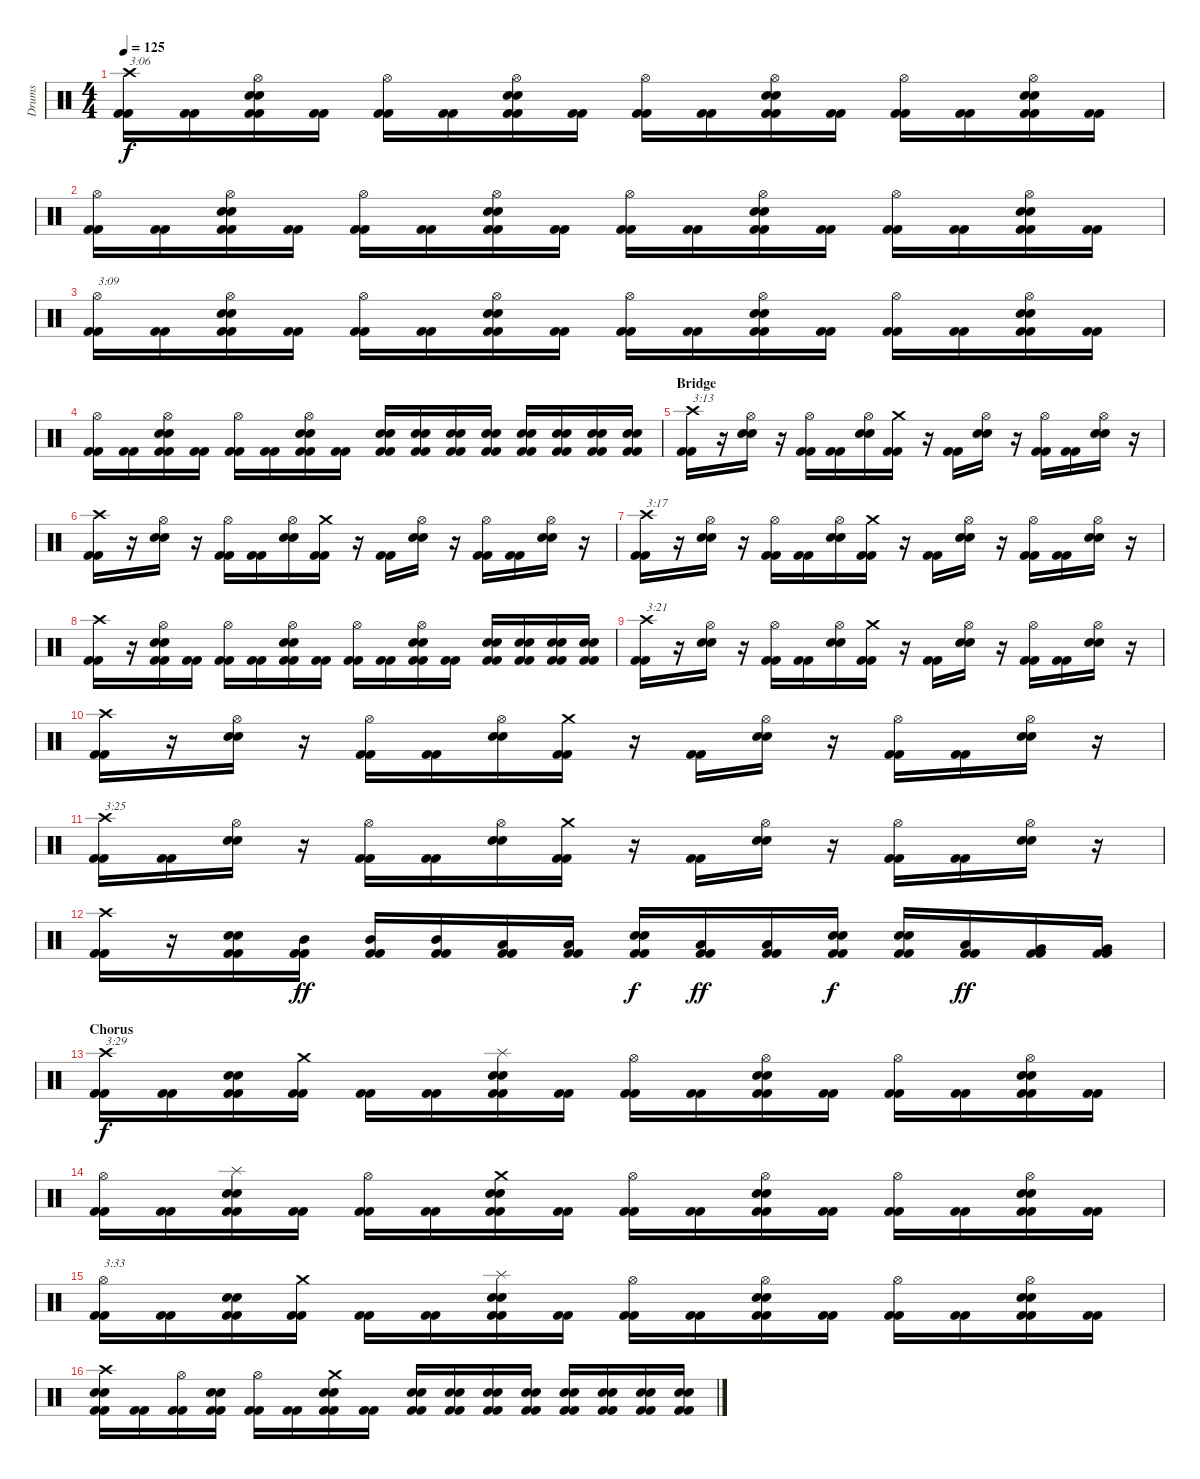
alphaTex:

\track ("Drums" "Drums") {instrument percussion}
\staff {score}
\articulation defaults
\ts (4 4)
\tempo 125
\clef neutral
\ks c
("Crash high (hit)" "Kick (hit) 2" "Kick (hit) 2").16{txt "3:06" dy f} ("Kick (hit) 2" "Kick (hit) 2").16 ("Hi-Hat (open)" "Snare (hit) 2" "Snare (hit) 2" "Kick (hit) 2" "Kick (hit) 2").16 ("Kick (hit) 2" "Kick (hit) 2").16 ("Hi-Hat (open)" "Kick (hit) 2" "Kick (hit) 2").16 ("Kick (hit) 2" "Kick (hit) 2").16 ("Hi-Hat (open)" "Snare (hit) 2" "Snare (hit) 2" "Kick (hit) 2" "Kick (hit) 2").16 ("Kick (hit) 2" "Kick (hit) 2").16 ("Hi-Hat (open)" "Kick (hit) 2" "Kick (hit) 2").16 ("Kick (hit) 2" "Kick (hit) 2").16 ("Hi-Hat (open)" "Snare (hit) 2" "Snare (hit) 2" "Kick (hit) 2" "Kick (hit) 2").16 ("Kick (hit) 2" "Kick (hit) 2").16 ("Hi-Hat (open)" "Kick (hit) 2" "Kick (hit) 2").16 ("Kick (hit) 2" "Kick (hit) 2").16 ("Hi-Hat (open)" "Snare (hit) 2" "Snare (hit) 2" "Kick (hit) 2" "Kick (hit) 2").16 ("Kick (hit) 2" "Kick (hit) 2").16 |
("Hi-Hat (open)" "Kick (hit) 2" "Kick (hit) 2").16 ("Kick (hit) 2" "Kick (hit) 2").16 ("Hi-Hat (open)" "Snare (hit) 2" "Snare (hit) 2" "Kick (hit) 2" "Kick (hit) 2").16 ("Kick (hit) 2" "Kick (hit) 2").16 ("Hi-Hat (open)" "Kick (hit) 2" "Kick (hit) 2").16 ("Kick (hit) 2" "Kick (hit) 2").16 ("Hi-Hat (open)" "Snare (hit) 2" "Snare (hit) 2" "Kick (hit) 2" "Kick (hit) 2").16 ("Kick (hit) 2" "Kick (hit) 2").16 ("Hi-Hat (open)" "Kick (hit) 2" "Kick (hit) 2").16 ("Kick (hit) 2" "Kick (hit) 2").16 ("Hi-Hat (open)" "Snare (hit) 2" "Snare (hit) 2" "Kick (hit) 2" "Kick (hit) 2").16 ("Kick (hit) 2" "Kick (hit) 2").16 ("Hi-Hat (open)" "Kick (hit) 2" "Kick (hit) 2").16 ("Kick (hit) 2" "Kick (hit) 2").16 ("Hi-Hat (open)" "Snare (hit) 2" "Snare (hit) 2" "Kick (hit) 2" "Kick (hit) 2").16 ("Kick (hit) 2" "Kick (hit) 2").16 |
("Hi-Hat (open)" "Kick (hit) 2" "Kick (hit) 2").16{txt "3:09"} ("Kick (hit) 2" "Kick (hit) 2").16 ("Hi-Hat (open)" "Snare (hit) 2" "Snare (hit) 2" "Kick (hit) 2" "Kick (hit) 2").16 ("Kick (hit) 2" "Kick (hit) 2").16 ("Hi-Hat (open)" "Kick (hit) 2" "Kick (hit) 2").16 ("Kick (hit) 2" "Kick (hit) 2").16 ("Hi-Hat (open)" "Snare (hit) 2" "Snare (hit) 2" "Kick (hit) 2" "Kick (hit) 2").16 ("Kick (hit) 2" "Kick (hit) 2").16 ("Hi-Hat (open)" "Kick (hit) 2" "Kick (hit) 2").16 ("Kick (hit) 2" "Kick (hit) 2").16 ("Hi-Hat (open)" "Snare (hit) 2" "Snare (hit) 2" "Kick (hit) 2" "Kick (hit) 2").16 ("Kick (hit) 2" "Kick (hit) 2").16 ("Hi-Hat (open)" "Kick (hit) 2" "Kick (hit) 2").16 ("Kick (hit) 2" "Kick (hit) 2").16 ("Hi-Hat (open)" "Snare (hit) 2" "Snare (hit) 2" "Kick (hit) 2" "Kick (hit) 2").16 ("Kick (hit) 2" "Kick (hit) 2").16 |
("Hi-Hat (open)" "Kick (hit) 2" "Kick (hit) 2").16 ("Kick (hit) 2" "Kick (hit) 2").16 ("Hi-Hat (open)" "Snare (hit) 2" "Snare (hit) 2" "Kick (hit) 2" "Kick (hit) 2").16 ("Kick (hit) 2" "Kick (hit) 2").16 ("Hi-Hat (open)" "Kick (hit) 2" "Kick (hit) 2").16 ("Kick (hit) 2" "Kick (hit) 2").16 ("Hi-Hat (open)" "Snare (hit) 2" "Snare (hit) 2" "Kick (hit) 2" "Kick (hit) 2").16 ("Kick (hit) 2" "Kick (hit) 2").16 ("Snare (hit) 2" "Snare (hit) 2" "Kick (hit) 2" "Kick (hit) 2").16 ("Snare (hit) 2" "Snare (hit) 2" "Kick (hit) 2" "Kick (hit) 2").16 ("Snare (hit) 2" "Snare (hit) 2" "Kick (hit) 2" "Kick (hit) 2").16 ("Snare (hit) 2" "Snare (hit) 2" "Kick (hit) 2" "Kick (hit) 2").16 ("Snare (hit) 2" "Snare (hit) 2" "Kick (hit) 2" "Kick (hit) 2").16 ("Snare (hit) 2" "Snare (hit) 2" "Kick (hit) 2" "Kick (hit) 2").16 ("Snare (hit) 2" "Snare (hit) 2" "Kick (hit) 2" "Kick (hit) 2").16 ("Snare (hit) 2" "Snare (hit) 2" "Kick (hit) 2" "Kick (hit) 2").16 |
\section ("" "Bridge")
("Crash high (hit)" "Kick (hit) 2" "Kick (hit) 2").16{txt "3:13"} r.16 ("Hi-Hat (open)" "Snare (hit) 2" "Snare (hit) 2").16 r.16 ("Hi-Hat (open)" "Kick (hit) 2" "Kick (hit) 2").16 ("Kick (hit) 2" "Kick (hit) 2").16 ("Hi-Hat (open)" "Snare (hit) 2" "Snare (hit) 2").16 ("Crash medium (hit)" "Kick (hit) 2" "Kick (hit) 2").16 r.16 ("Kick (hit) 2" "Kick (hit) 2").16 ("Hi-Hat (open)" "Snare (hit) 2" "Snare (hit) 2").16 r.16 ("Hi-Hat (open)" "Kick (hit) 2" "Kick (hit) 2").16 ("Kick (hit) 2" "Kick (hit) 2").16 ("Hi-Hat (open)" "Snare (hit) 2" "Snare (hit) 2").16 r.16 |
("Crash high (hit)" "Kick (hit) 2" "Kick (hit) 2").16 r.16 ("Hi-Hat (open)" "Snare (hit) 2" "Snare (hit) 2").16 r.16 ("Hi-Hat (open)" "Kick (hit) 2" "Kick (hit) 2").16 ("Kick (hit) 2" "Kick (hit) 2").16 ("Hi-Hat (open)" "Snare (hit) 2" "Snare (hit) 2").16 ("Crash medium (hit)" "Kick (hit) 2" "Kick (hit) 2").16 r.16 ("Kick (hit) 2" "Kick (hit) 2").16 ("Hi-Hat (open)" "Snare (hit) 2" "Snare (hit) 2").16 r.16 ("Hi-Hat (open)" "Kick (hit) 2" "Kick (hit) 2").16 ("Kick (hit) 2" "Kick (hit) 2").16 ("Hi-Hat (open)" "Snare (hit) 2" "Snare (hit) 2").16 r.16 |
("Crash high (hit)" "Kick (hit) 2" "Kick (hit) 2").16{txt "3:17"} r.16 ("Hi-Hat (open)" "Snare (hit) 2" "Snare (hit) 2").16 r.16 ("Hi-Hat (open)" "Kick (hit) 2" "Kick (hit) 2").16 ("Kick (hit) 2" "Kick (hit) 2").16 ("Hi-Hat (open)" "Snare (hit) 2" "Snare (hit) 2").16 ("Crash medium (hit)" "Kick (hit) 2" "Kick (hit) 2").16 r.16 ("Kick (hit) 2" "Kick (hit) 2").16 ("Hi-Hat (open)" "Snare (hit) 2" "Snare (hit) 2").16 r.16 ("Hi-Hat (open)" "Kick (hit) 2" "Kick (hit) 2").16 ("Kick (hit) 2" "Kick (hit) 2").16 ("Hi-Hat (open)" "Snare (hit) 2" "Snare (hit) 2").16 r.16 |
("Crash high (hit)" "Kick (hit) 2" "Kick (hit) 2").16 r.16 ("Hi-Hat (open)" "Snare (hit) 2" "Snare (hit) 2" "Kick (hit) 2" "Kick (hit) 2").16 ("Kick (hit) 2" "Kick (hit) 2").16 ("Hi-Hat (open)" "Kick (hit) 2" "Kick (hit) 2").16 ("Kick (hit) 2" "Kick (hit) 2").16 ("Hi-Hat (open)" "Snare (hit) 2" "Snare (hit) 2" "Kick (hit) 2" "Kick (hit) 2").16 ("Kick (hit) 2" "Kick (hit) 2").16 ("Hi-Hat (open)" "Kick (hit) 2" "Kick (hit) 2").16 ("Kick (hit) 2" "Kick (hit) 2").16 ("Hi-Hat (open)" "Snare (hit) 2" "Snare (hit) 2" "Kick (hit) 2" "Kick (hit) 2").16 ("Kick (hit) 2" "Kick (hit) 2").16 ("Snare (hit) 2" "Snare (hit) 2" "Kick (hit) 2" "Kick (hit) 2").16 ("Snare (hit) 2" "Snare (hit) 2" "Kick (hit) 2" "Kick (hit) 2").16 ("Snare (hit) 2" "Snare (hit) 2" "Kick (hit) 2" "Kick (hit) 2").16 ("Snare (hit) 2" "Snare (hit) 2" "Kick (hit) 2" "Kick (hit) 2").16 |
("Crash high (hit)" "Kick (hit) 2" "Kick (hit) 2").16{txt "3:21"} r.16 ("Hi-Hat (open)" "Snare (hit) 2" "Snare (hit) 2").16 r.16 ("Hi-Hat (open)" "Kick (hit) 2" "Kick (hit) 2").16 ("Kick (hit) 2" "Kick (hit) 2").16 ("Hi-Hat (open)" "Snare (hit) 2" "Snare (hit) 2").16 ("Crash medium (hit)" "Kick (hit) 2" "Kick (hit) 2").16 r.16 ("Kick (hit) 2" "Kick (hit) 2").16 ("Hi-Hat (open)" "Snare (hit) 2" "Snare (hit) 2").16 r.16 ("Hi-Hat (open)" "Kick (hit) 2" "Kick (hit) 2").16 ("Kick (hit) 2" "Kick (hit) 2").16 ("Hi-Hat (open)" "Snare (hit) 2" "Snare (hit) 2").16 r.16 |
("Crash high (hit)" "Kick (hit) 2" "Kick (hit) 2").16 r.16 ("Hi-Hat (open)" "Snare (hit) 2" "Snare (hit) 2").16 r.16 ("Hi-Hat (open)" "Kick (hit) 2" "Kick (hit) 2").16 ("Kick (hit) 2" "Kick (hit) 2").16 ("Hi-Hat (open)" "Snare (hit) 2" "Snare (hit) 2").16 ("Crash medium (hit)" "Kick (hit) 2" "Kick (hit) 2").16 r.16 ("Kick (hit) 2" "Kick (hit) 2").16 ("Hi-Hat (open)" "Snare (hit) 2" "Snare (hit) 2").16 r.16 ("Hi-Hat (open)" "Kick (hit) 2" "Kick (hit) 2").16 ("Kick (hit) 2" "Kick (hit) 2").16 ("Hi-Hat (open)" "Snare (hit) 2" "Snare (hit) 2").16 r.16 |
("Crash high (hit)" "Kick (hit) 2" "Kick (hit) 2").16{txt "3:25"} ("Kick (hit) 2" "Kick (hit) 2").16 ("Hi-Hat (open)" "Snare (hit) 2" "Snare (hit) 2").16 r.16 ("Hi-Hat (open)" "Kick (hit) 2" "Kick (hit) 2").16 ("Kick (hit) 2" "Kick (hit) 2").16 ("Hi-Hat (open)" "Snare (hit) 2" "Snare (hit) 2").16 ("Crash medium (hit)" "Kick (hit) 2" "Kick (hit) 2").16 r.16 ("Kick (hit) 2" "Kick (hit) 2").16 ("Hi-Hat (open)" "Snare (hit) 2" "Snare (hit) 2").16 r.16 ("Hi-Hat (open)" "Kick (hit) 2" "Kick (hit) 2").16 ("Kick (hit) 2" "Kick (hit) 2").16 ("Hi-Hat (open)" "Snare (hit) 2" "Snare (hit) 2").16 r.16 |
("Crash high (hit)" "Kick (hit) 2" "Kick (hit) 2").16 r.16 ("Snare (hit) 2" "Snare (hit) 2" "Kick (hit) 2" "Kick (hit) 2").16 ("Mid Tom (hit)" "Kick (hit) 2" "Kick (hit) 2").16{dy ff} ("Mid Tom (hit)" "Kick (hit) 2" "Kick (hit) 2").16 ("Mid Tom (hit)" "Kick (hit) 2" "Kick (hit) 2").16 ("Low Tom (hit)" "Kick (hit) 2" "Kick (hit) 2").16 ("Low Tom (hit)" "Kick (hit) 2" "Kick (hit) 2").16 ("Snare (hit) 2" "Snare (hit) 2" "Kick (hit) 2" "Kick (hit) 2").16{dy f} ("Low Tom (hit)" "Kick (hit) 2" "Kick (hit) 2").16{dy ff} ("Low Tom (hit)" "Kick (hit) 2" "Kick (hit) 2").16 ("Snare (hit) 2" "Snare (hit) 2" "Kick (hit) 2" "Kick (hit) 2").16{dy f} ("Snare (hit) 2" "Snare (hit) 2" "Kick (hit) 2" "Kick (hit) 2").16 ("Low Tom (hit)" "Kick (hit) 2" "Kick (hit) 2").16{dy ff} ("Very Low Tom (hit)" "Kick (hit) 2" "Kick (hit) 2").16 ("Very Low Tom (hit)" "Kick (hit) 2" "Kick (hit) 2").16 |
\section ("" "Chorus")
("Crash high (hit)" "Kick (hit) 2" "Kick (hit) 2").16{txt "3:29" dy f} ("Kick (hit) 2" "Kick (hit) 2").16 ("Snare (hit) 2" "Snare (hit) 2" "Kick (hit) 2" "Kick (hit) 2").16 ("Crash medium (hit)" "Kick (hit) 2" "Kick (hit) 2").16 ("Kick (hit) 2" "Kick (hit) 2").16 ("Kick (hit) 2" "Kick (hit) 2").16 ("Splash (hit)" "Snare (hit) 2" "Snare (hit) 2" "Kick (hit) 2" "Kick (hit) 2").16 ("Kick (hit) 2" "Kick (hit) 2").16 ("Hi-Hat (open)" "Kick (hit) 2" "Kick (hit) 2").16 ("Kick (hit) 2" "Kick (hit) 2").16 ("Hi-Hat (open)" "Snare (hit) 2" "Snare (hit) 2" "Kick (hit) 2" "Kick (hit) 2").16 ("Kick (hit) 2" "Kick (hit) 2").16 ("Hi-Hat (open)" "Kick (hit) 2" "Kick (hit) 2").16 ("Kick (hit) 2" "Kick (hit) 2").16 ("Hi-Hat (open)" "Snare (hit) 2" "Snare (hit) 2" "Kick (hit) 2" "Kick (hit) 2").16 ("Kick (hit) 2" "Kick (hit) 2").16 |
("Hi-Hat (open)" "Kick (hit) 2" "Kick (hit) 2").16 ("Kick (hit) 2" "Kick (hit) 2").16 ("Splash (hit)" "Snare (hit) 2" "Snare (hit) 2" "Kick (hit) 2" "Kick (hit) 2").16 ("Kick (hit) 2" "Kick (hit) 2").16 ("Hi-Hat (open)" "Kick (hit) 2" "Kick (hit) 2").16 ("Kick (hit) 2" "Kick (hit) 2").16 ("Crash medium (hit)" "Snare (hit) 2" "Snare (hit) 2" "Kick (hit) 2" "Kick (hit) 2").16 ("Kick (hit) 2" "Kick (hit) 2").16 ("Hi-Hat (open)" "Kick (hit) 2" "Kick (hit) 2").16 ("Kick (hit) 2" "Kick (hit) 2").16 ("Hi-Hat (open)" "Snare (hit) 2" "Snare (hit) 2" "Kick (hit) 2" "Kick (hit) 2").16 ("Kick (hit) 2" "Kick (hit) 2").16 ("Hi-Hat (open)" "Kick (hit) 2" "Kick (hit) 2").16 ("Kick (hit) 2" "Kick (hit) 2").16 ("Hi-Hat (open)" "Snare (hit) 2" "Snare (hit) 2" "Kick (hit) 2" "Kick (hit) 2").16 ("Kick (hit) 2" "Kick (hit) 2").16 |
("Hi-Hat (open)" "Kick (hit) 2" "Kick (hit) 2").16{txt "3:33"} ("Kick (hit) 2" "Kick (hit) 2").16 ("Snare (hit) 2" "Snare (hit) 2" "Kick (hit) 2" "Kick (hit) 2").16 ("Crash medium (hit)" "Kick (hit) 2" "Kick (hit) 2").16 ("Kick (hit) 2" "Kick (hit) 2").16 ("Kick (hit) 2" "Kick (hit) 2").16 ("Splash (hit)" "Snare (hit) 2" "Snare (hit) 2" "Kick (hit) 2" "Kick (hit) 2").16 ("Kick (hit) 2" "Kick (hit) 2").16 ("Hi-Hat (open)" "Kick (hit) 2" "Kick (hit) 2").16 ("Kick (hit) 2" "Kick (hit) 2").16 ("Hi-Hat (open)" "Snare (hit) 2" "Snare (hit) 2" "Kick (hit) 2" "Kick (hit) 2").16 ("Kick (hit) 2" "Kick (hit) 2").16 ("Hi-Hat (open)" "Kick (hit) 2" "Kick (hit) 2").16 ("Kick (hit) 2" "Kick (hit) 2").16 ("Hi-Hat (open)" "Snare (hit) 2" "Snare (hit) 2" "Kick (hit) 2" "Kick (hit) 2").16 ("Kick (hit) 2" "Kick (hit) 2").16 |
("Crash high (hit)" "Snare (hit) 2" "Snare (hit) 2" "Kick (hit) 2" "Kick (hit) 2").16 ("Kick (hit) 2" "Kick (hit) 2").16 ("Hi-Hat (open)" "Kick (hit) 2" "Kick (hit) 2").16 ("Snare (hit) 2" "Snare (hit) 2" "Kick (hit) 2" "Kick (hit) 2").16 ("Hi-Hat (open)" "Kick (hit) 2" "Kick (hit) 2").16 ("Kick (hit) 2" "Kick (hit) 2").16 ("Crash medium (hit)" "Snare (hit) 2" "Snare (hit) 2" "Kick (hit) 2" "Kick (hit) 2").16 ("Kick (hit) 2" "Kick (hit) 2").16 ("Snare (hit) 2" "Snare (hit) 2" "Kick (hit) 2" "Kick (hit) 2").16 ("Snare (hit) 2" "Snare (hit) 2" "Kick (hit) 2" "Kick (hit) 2").16 ("Snare (hit) 2" "Snare (hit) 2" "Kick (hit) 2" "Kick (hit) 2").16 ("Snare (hit) 2" "Snare (hit) 2" "Kick (hit) 2" "Kick (hit) 2").16 ("Snare (hit) 2" "Snare (hit) 2" "Kick (hit) 2" "Kick (hit) 2").16 ("Snare (hit) 2" "Snare (hit) 2" "Kick (hit) 2" "Kick (hit) 2").16 ("Snare (hit) 2" "Snare (hit) 2" "Kick (hit) 2" "Kick (hit) 2").16 ("Snare (hit) 2" "Snare (hit) 2" "Kick (hit) 2" "Kick (hit) 2").16
